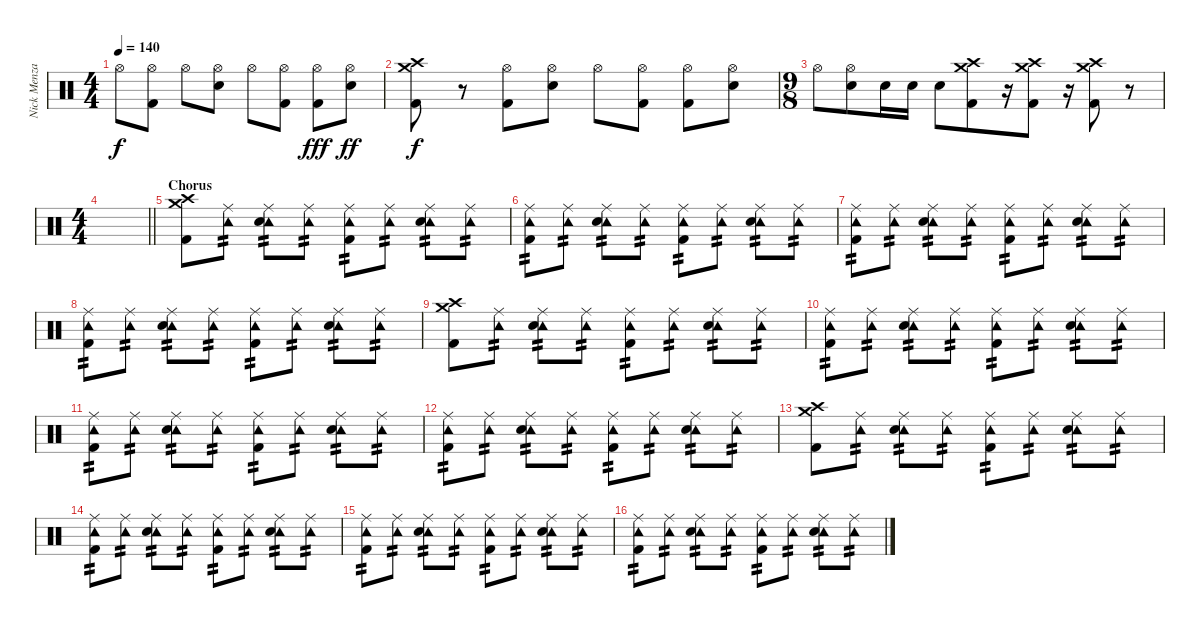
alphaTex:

\track ("Nick Menza" "Nick Menza") {instrument percussion}
\staff {score}
\articulation defaults
\ts (4 4)
\tempo 140
\clef neutral
\ks c "Hi-Hat (open)".8{dy f}
("Hi-Hat (open)" "Kick (hit) 2").8 "Hi-Hat (open)".8 ("Hi-Hat (open)" "Snare (hit) 2").8 "Hi-Hat (open)".8 ("Hi-Hat (open)" "Kick (hit) 2").8 ("Hi-Hat (open)" "Kick (hit) 2").8{dy fff} ("Hi-Hat (open)" "Snare (hit) 2").8{dy ff} |
("Crash high (hit)" "Crash medium (hit)" "Kick (hit) 2").8{dy f} r.8 ("Hi-Hat (open)" "Kick (hit) 2").8 ("Hi-Hat (open)" "Snare (hit) 2").8 "Hi-Hat (open)".8 ("Hi-Hat (open)" "Kick (hit) 2").8 ("Hi-Hat (open)" "Kick (hit) 2").8 ("Hi-Hat (open)" "Snare (hit) 2").8 |
\ts (9 8)
"Hi-Hat (open)".8 ("Hi-Hat (open)" "Snare (hit) 2").8 "Snare (hit) 2".16 "Snare (hit) 2".16 "Snare (hit) 2".8 ("Crash high (hit)" "Crash medium (hit)" "Kick (hit) 2").8 r.16 ("Crash high (hit)" "Crash medium (hit)" "Kick (hit) 2").8 r.16 ("Crash high (hit)" "Crash medium (hit)" "Kick (hit) 2").8 r.8 |
\ts (4 4)
\barLineRight lightlight
|
\section ("" "Chorus")
("Crash high (hit)" "Crash medium (hit)" "Kick (hit) 2").8 ("Tambourine (hit)" "Ride (middle)").8{tp 2} ("Tambourine (hit)" "Ride (middle)" "Snare (hit) 2").8{tp 2} ("Tambourine (hit)" "Ride (middle)").8{tp 2} ("Tambourine (hit)" "Ride (middle)" "Kick (hit) 2").8{tp 2} ("Tambourine (hit)" "Ride (middle)").8{tp 2} ("Tambourine (hit)" "Ride (middle)" "Snare (hit) 2").8{tp 2} ("Tambourine (hit)" "Ride (middle)").8{tp 2} |
("Tambourine (hit)" "Ride (middle)" "Kick (hit) 2").8{tp 2} ("Tambourine (hit)" "Ride (middle)").8{tp 2} ("Tambourine (hit)" "Ride (middle)" "Snare (hit) 2").8{tp 2} ("Tambourine (hit)" "Ride (middle)").8{tp 2} ("Tambourine (hit)" "Ride (middle)" "Kick (hit) 2").8{tp 2} ("Tambourine (hit)" "Ride (middle)").8{tp 2} ("Tambourine (hit)" "Ride (middle)" "Snare (hit) 2").8{tp 2} ("Tambourine (hit)" "Ride (middle)").8{tp 2} |
("Tambourine (hit)" "Ride (middle)" "Kick (hit) 2").8{tp 2} ("Tambourine (hit)" "Ride (middle)").8{tp 2} ("Tambourine (hit)" "Ride (middle)" "Snare (hit) 2").8{tp 2} ("Tambourine (hit)" "Ride (middle)").8{tp 2} ("Tambourine (hit)" "Ride (middle)" "Kick (hit) 2").8{tp 2} ("Tambourine (hit)" "Ride (middle)").8{tp 2} ("Tambourine (hit)" "Ride (middle)" "Snare (hit) 2").8{tp 2} ("Tambourine (hit)" "Ride (middle)").8{tp 2} |
("Tambourine (hit)" "Ride (middle)" "Kick (hit) 2").8{tp 2} ("Tambourine (hit)" "Ride (middle)").8{tp 2} ("Tambourine (hit)" "Ride (middle)" "Snare (hit) 2").8{tp 2} ("Tambourine (hit)" "Ride (middle)").8{tp 2} ("Tambourine (hit)" "Ride (middle)" "Kick (hit) 2").8{tp 2} ("Tambourine (hit)" "Ride (middle)").8{tp 2} ("Tambourine (hit)" "Ride (middle)" "Snare (hit) 2").8{tp 2} ("Tambourine (hit)" "Ride (middle)").8{tp 2} |
("Crash high (hit)" "Crash medium (hit)" "Kick (hit) 2").8 ("Tambourine (hit)" "Ride (middle)").8{tp 2} ("Tambourine (hit)" "Ride (middle)" "Snare (hit) 2").8{tp 2} ("Tambourine (hit)" "Ride (middle)").8{tp 2} ("Tambourine (hit)" "Ride (middle)" "Kick (hit) 2").8{tp 2} ("Tambourine (hit)" "Ride (middle)").8{tp 2} ("Tambourine (hit)" "Ride (middle)" "Snare (hit) 2").8{tp 2} ("Tambourine (hit)" "Ride (middle)").8{tp 2} |
("Tambourine (hit)" "Ride (middle)" "Kick (hit) 2").8{tp 2} ("Tambourine (hit)" "Ride (middle)").8{tp 2} ("Tambourine (hit)" "Ride (middle)" "Snare (hit) 2").8{tp 2} ("Tambourine (hit)" "Ride (middle)").8{tp 2} ("Tambourine (hit)" "Ride (middle)" "Kick (hit) 2").8{tp 2} ("Tambourine (hit)" "Ride (middle)").8{tp 2} ("Tambourine (hit)" "Ride (middle)" "Snare (hit) 2").8{tp 2} ("Tambourine (hit)" "Ride (middle)").8{tp 2} |
("Tambourine (hit)" "Ride (middle)" "Kick (hit) 2").8{tp 2} ("Tambourine (hit)" "Ride (middle)").8{tp 2} ("Tambourine (hit)" "Ride (middle)" "Snare (hit) 2").8{tp 2} ("Tambourine (hit)" "Ride (middle)").8{tp 2} ("Tambourine (hit)" "Ride (middle)" "Kick (hit) 2").8{tp 2} ("Tambourine (hit)" "Ride (middle)").8{tp 2} ("Tambourine (hit)" "Ride (middle)" "Snare (hit) 2").8{tp 2} ("Tambourine (hit)" "Ride (middle)").8{tp 2} |
("Tambourine (hit)" "Ride (middle)" "Kick (hit) 2").8{tp 2} ("Tambourine (hit)" "Ride (middle)").8{tp 2} ("Tambourine (hit)" "Ride (middle)" "Snare (hit) 2").8{tp 2} ("Tambourine (hit)" "Ride (middle)").8{tp 2} ("Tambourine (hit)" "Ride (middle)" "Kick (hit) 2").8{tp 2} ("Tambourine (hit)" "Ride (middle)").8{tp 2} ("Tambourine (hit)" "Ride (middle)" "Snare (hit) 2").8{tp 2} ("Tambourine (hit)" "Ride (middle)").8{tp 2} |
("Crash high (hit)" "Crash medium (hit)" "Kick (hit) 2").8 ("Tambourine (hit)" "Ride (middle)").8{tp 2} ("Tambourine (hit)" "Ride (middle)" "Snare (hit) 2").8{tp 2} ("Tambourine (hit)" "Ride (middle)").8{tp 2} ("Tambourine (hit)" "Ride (middle)" "Kick (hit) 2").8{tp 2} ("Tambourine (hit)" "Ride (middle)").8{tp 2} ("Tambourine (hit)" "Ride (middle)" "Snare (hit) 2").8{tp 2} ("Tambourine (hit)" "Ride (middle)").8{tp 2} |
("Tambourine (hit)" "Ride (middle)" "Kick (hit) 2").8{tp 2} ("Tambourine (hit)" "Ride (middle)").8{tp 2} ("Tambourine (hit)" "Ride (middle)" "Snare (hit) 2").8{tp 2} ("Tambourine (hit)" "Ride (middle)").8{tp 2} ("Tambourine (hit)" "Ride (middle)" "Kick (hit) 2").8{tp 2} ("Tambourine (hit)" "Ride (middle)").8{tp 2} ("Tambourine (hit)" "Ride (middle)" "Snare (hit) 2").8{tp 2} ("Tambourine (hit)" "Ride (middle)").8{tp 2} |
("Tambourine (hit)" "Ride (middle)" "Kick (hit) 2").8{tp 2} ("Tambourine (hit)" "Ride (middle)").8{tp 2} ("Tambourine (hit)" "Ride (middle)" "Snare (hit) 2").8{tp 2} ("Tambourine (hit)" "Ride (middle)").8{tp 2} ("Tambourine (hit)" "Ride (middle)" "Kick (hit) 2").8{tp 2} ("Tambourine (hit)" "Ride (middle)").8{tp 2} ("Tambourine (hit)" "Ride (middle)" "Snare (hit) 2").8{tp 2} ("Tambourine (hit)" "Ride (middle)").8{tp 2} |
("Tambourine (hit)" "Ride (middle)" "Kick (hit) 2").8{tp 2} ("Tambourine (hit)" "Ride (middle)").8{tp 2} ("Tambourine (hit)" "Ride (middle)" "Snare (hit) 2").8{tp 2} ("Tambourine (hit)" "Ride (middle)").8{tp 2} ("Tambourine (hit)" "Ride (middle)" "Kick (hit) 2").8{tp 2} ("Tambourine (hit)" "Ride (middle)").8{tp 2} ("Tambourine (hit)" "Ride (middle)" "Snare (hit) 2").8{tp 2} ("Tambourine (hit)" "Ride (middle)").8{tp 2}
